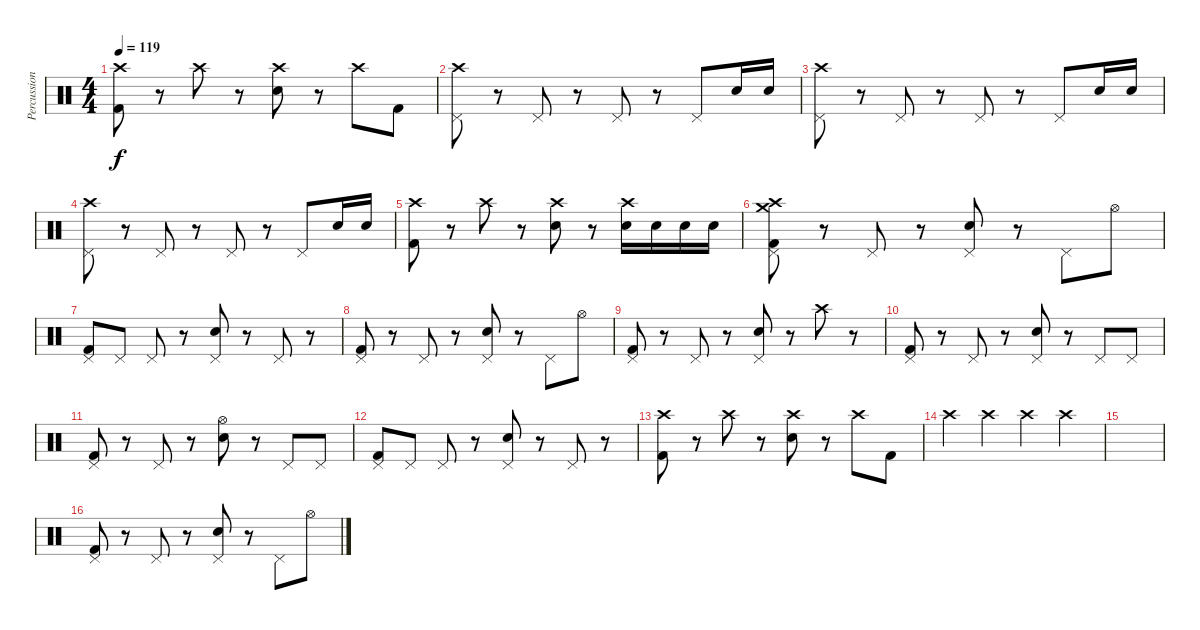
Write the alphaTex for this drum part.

\track ("Percussion" "Percussion") {instrument percussion}
\staff {score}
\articulation defaults
\ts (4 4)
\tempo 119
\clef neutral
\ks c
("Crash high (hit)" "Kick (hit) 2").8{dy f} r.8 "Crash high (hit)".8 r.8 ("Crash high (hit)" "Snare (hit) 2").8 r.8 "Crash high (hit)".8 "Kick (hit) 2".8 |
("Pedal Hi-Hat (hit)" "Crash high (hit)").8 r.8 "Pedal Hi-Hat (hit)".8 r.8 "Pedal Hi-Hat (hit)".8 r.8 "Pedal Hi-Hat (hit)".8 "Snare (hit) 2".16 "Snare (hit) 2".16 |
("Pedal Hi-Hat (hit)" "Crash high (hit)").8 r.8 "Pedal Hi-Hat (hit)".8 r.8 "Pedal Hi-Hat (hit)".8 r.8 "Pedal Hi-Hat (hit)".8 "Snare (hit) 2".16 "Snare (hit) 2".16 |
("Pedal Hi-Hat (hit)" "Crash high (hit)").8 r.8 "Pedal Hi-Hat (hit)".8 r.8 "Pedal Hi-Hat (hit)".8 r.8 "Pedal Hi-Hat (hit)".8 "Snare (hit) 2".16 "Snare (hit) 2".16 |
("Crash high (hit)" "Kick (hit) 2").8 r.8 "Crash high (hit)".8 r.8 ("Crash high (hit)" "Snare (hit) 2").8 r.8 ("Crash high (hit)" "Snare (hit) 2").16 "Snare (hit) 2".16 "Snare (hit) 2".16 "Snare (hit) 2".16 |
("Pedal Hi-Hat (hit)" "Kick (hit) 2" "Crash high (hit)" "Crash medium (hit)").8 r.8 "Pedal Hi-Hat (hit)".8 r.8 ("Pedal Hi-Hat (hit)" "Snare (hit) 2").8 r.8 "Pedal Hi-Hat (hit)".8 "Hi-Hat (open)".8 |
("Pedal Hi-Hat (hit)" "Kick (hit) 2").8 "Pedal Hi-Hat (hit)".8 "Pedal Hi-Hat (hit)".8 r.8 ("Pedal Hi-Hat (hit)" "Snare (hit) 2").8 r.8 "Pedal Hi-Hat (hit)".8 r.8 |
("Pedal Hi-Hat (hit)" "Kick (hit) 2").8 r.8 "Pedal Hi-Hat (hit)".8 r.8 ("Pedal Hi-Hat (hit)" "Snare (hit) 2").8 r.8 "Pedal Hi-Hat (hit)".8 "Hi-Hat (open)".8 |
("Pedal Hi-Hat (hit)" "Kick (hit) 2").8 r.8 "Pedal Hi-Hat (hit)".8 r.8 ("Pedal Hi-Hat (hit)" "Snare (hit) 2").8 r.8 "Crash high (hit)".8 r.8 |
("Pedal Hi-Hat (hit)" "Kick (hit) 2").8 r.8 "Pedal Hi-Hat (hit)".8 r.8 ("Pedal Hi-Hat (hit)" "Snare (hit) 2").8 r.8 "Pedal Hi-Hat (hit)".8 "Pedal Hi-Hat (hit)".8 |
("Pedal Hi-Hat (hit)" "Kick (hit) 2").8 r.8 "Pedal Hi-Hat (hit)".8 r.8 ("Hi-Hat (open)" "Snare (hit) 2").8 r.8 "Pedal Hi-Hat (hit)".8 "Pedal Hi-Hat (hit)".8 |
("Pedal Hi-Hat (hit)" "Kick (hit) 2").8 "Pedal Hi-Hat (hit)".8 "Pedal Hi-Hat (hit)".8 r.8 ("Pedal Hi-Hat (hit)" "Snare (hit) 2").8 r.8 "Pedal Hi-Hat (hit)".8 r.8 |
("Crash high (hit)" "Kick (hit) 2").8 r.8 "Crash high (hit)".8 r.8 ("Crash high (hit)" "Snare (hit) 2").8 r.8 "Crash high (hit)".8 "Kick (hit) 2".8 |
"Crash high (hit)".4 "Crash high (hit)".4 "Crash high (hit)".4 "Crash high (hit)".4 |
|
("Pedal Hi-Hat (hit)" "Kick (hit) 2").8 r.8 "Pedal Hi-Hat (hit)".8 r.8 ("Pedal Hi-Hat (hit)" "Snare (hit) 2").8 r.8 "Pedal Hi-Hat (hit)".8 "Hi-Hat (open)".8
